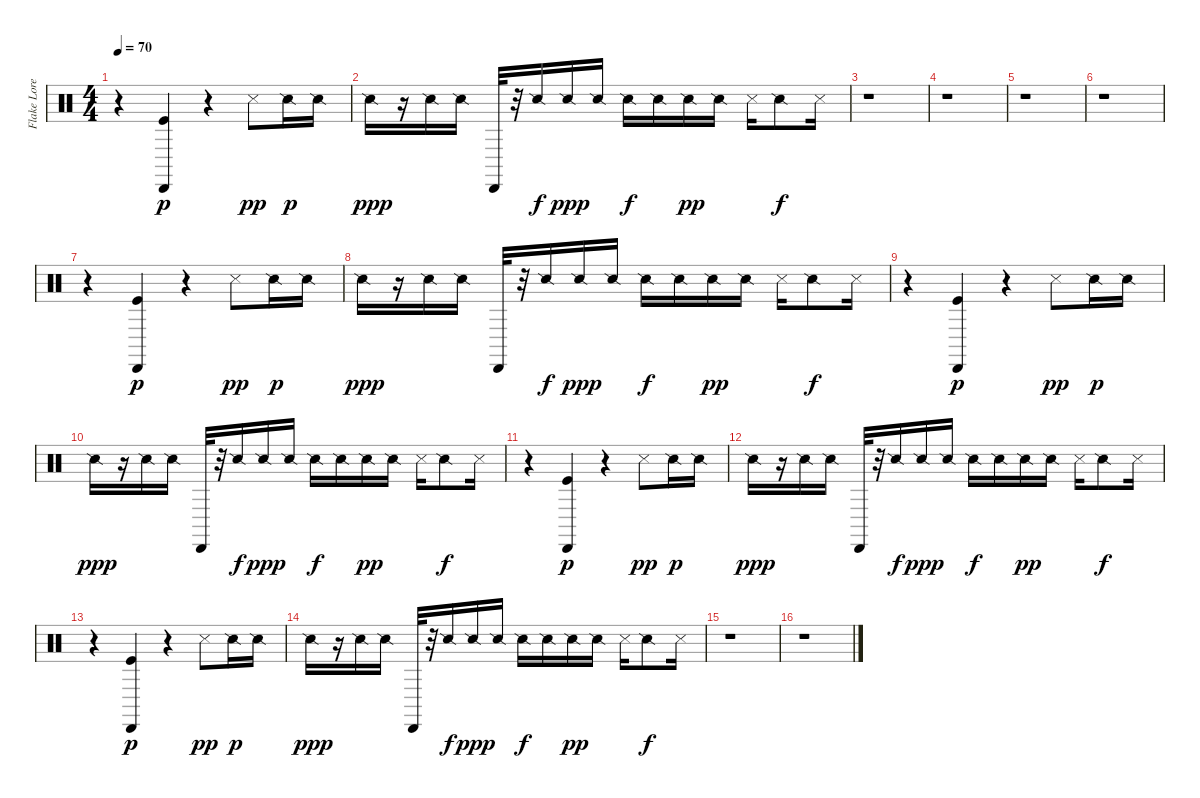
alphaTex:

\track ("Flake Lorenz" "Flake Lore") {instrument percussion}
\staff {score}
\articulation defaults
\ts (4 4)
\tempo 70
\clef neutral
\ks c
r.4{dy f} ("Kick (hit)" "Cabasa (hit)").4{dy p} r.4 "Metronome (hit)".8{dy pp} "Snare (side stick) 2".16{dy p} "Snare (side stick) 2".16 |
"Snare (side stick) 2".16{dy ppp} r.16 "Snare (side stick) 2".16 "Snare (side stick) 2".16 "Cabasa (hit)".32 r.32 "Snare (side stick) 2".16{dy f} "Snare (side stick) 2".16{dy ppp} "Snare (side stick) 2".16 "Snare (side stick) 2".16{dy f} "Snare (side stick) 2".16 "Snare (side stick) 2".16{dy pp} "Snare (side stick) 2".16 "Metronome (hit)".16 "Snare (side stick) 2".8{dy f} "Metronome (hit)".16 |
r.1 |
r.1 |
r.1 |
r.1 |
r.4 ("Cabasa (hit)" "Kick (hit)").4{dy p} r.4 "Metronome (hit)".8{dy pp} "Snare (side stick) 2".16{dy p} "Snare (side stick) 2".16 |
"Snare (side stick) 2".16{dy ppp} r.16 "Snare (side stick) 2".16 "Snare (side stick) 2".16 "Cabasa (hit)".32 r.32 "Snare (side stick) 2".16{dy f} "Snare (side stick) 2".16{dy ppp} "Snare (side stick) 2".16 "Snare (side stick) 2".16{dy f} "Snare (side stick) 2".16 "Snare (side stick) 2".16{dy pp} "Snare (side stick) 2".16 "Metronome (hit)".16 "Snare (side stick) 2".8{dy f} "Metronome (hit)".16 |
r.4 ("Cabasa (hit)" "Kick (hit)").4{dy p} r.4 "Metronome (hit)".8{dy pp} "Snare (side stick) 2".16{dy p} "Snare (side stick) 2".16 |
"Snare (side stick) 2".16{dy ppp} r.16 "Snare (side stick) 2".16 "Snare (side stick) 2".16 "Cabasa (hit)".32 r.32 "Snare (side stick) 2".16{dy f} "Snare (side stick) 2".16{dy ppp} "Snare (side stick) 2".16 "Snare (side stick) 2".16{dy f} "Snare (side stick) 2".16 "Snare (side stick) 2".16{dy pp} "Snare (side stick) 2".16 "Metronome (hit)".16 "Snare (side stick) 2".8{dy f} "Metronome (hit)".16 |
r.4 ("Kick (hit)" "Cabasa (hit)").4{dy p} r.4 "Metronome (hit)".8{dy pp} "Snare (side stick) 2".16{dy p} "Snare (side stick) 2".16 |
"Snare (side stick) 2".16{dy ppp} r.16 "Snare (side stick) 2".16 "Snare (side stick) 2".16 "Cabasa (hit)".32 r.32 "Snare (side stick) 2".16{dy f} "Snare (side stick) 2".16{dy ppp} "Snare (side stick) 2".16 "Snare (side stick) 2".16{dy f} "Snare (side stick) 2".16 "Snare (side stick) 2".16{dy pp} "Snare (side stick) 2".16 "Metronome (hit)".16 "Snare (side stick) 2".8{dy f} "Metronome (hit)".16 |
r.4 ("Cabasa (hit)" "Kick (hit)").4{dy p} r.4 "Metronome (hit)".8{dy pp} "Snare (side stick) 2".16{dy p} "Snare (side stick) 2".16 |
"Snare (side stick) 2".16{dy ppp} r.16 "Snare (side stick) 2".16 "Snare (side stick) 2".16 "Cabasa (hit)".32 r.32 "Snare (side stick) 2".16{dy f} "Snare (side stick) 2".16{dy ppp} "Snare (side stick) 2".16 "Snare (side stick) 2".16{dy f} "Snare (side stick) 2".16 "Snare (side stick) 2".16{dy pp} "Snare (side stick) 2".16 "Metronome (hit)".16 "Snare (side stick) 2".8{dy f} "Metronome (hit)".16 |
r.1 |
r.1
